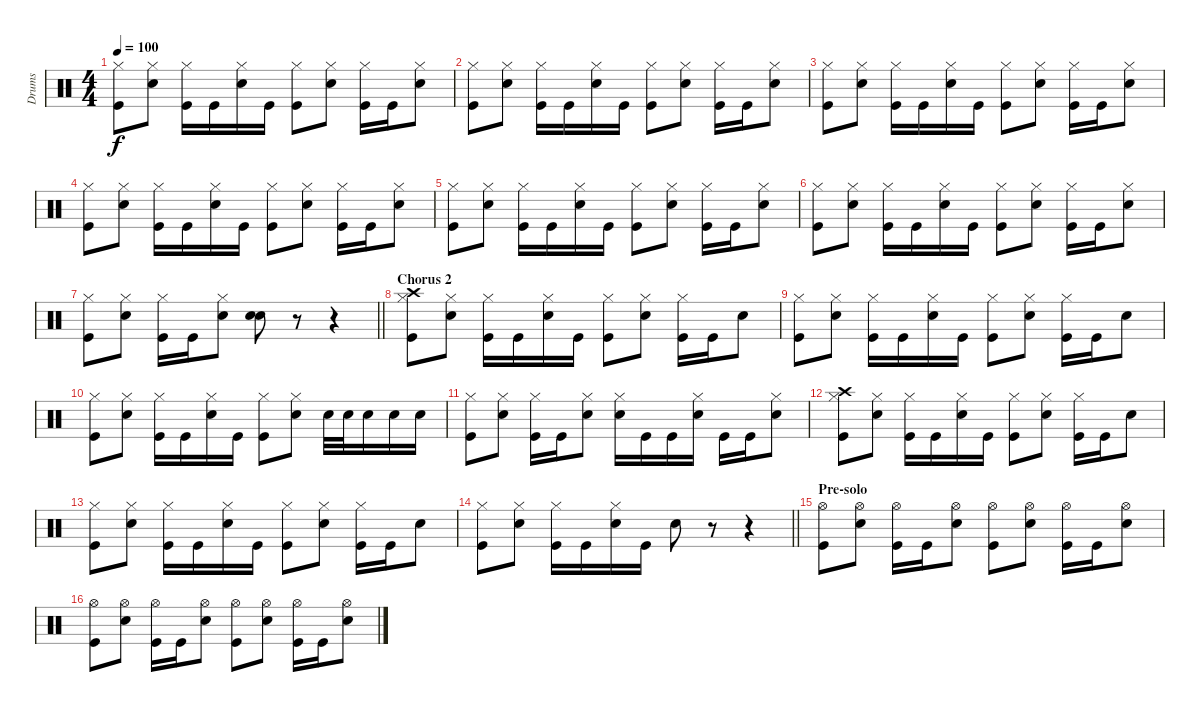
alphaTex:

\track ("Drums" "Drums") {instrument percussion}
\staff {score}
\articulation defaults
\ts (4 4)
\tempo 100
\clef neutral
\ks c
("Hi-Hat (closed)" "Kick (hit)").8{dy f} ("Hi-Hat (closed)" "Snare (hit) 2").8 ("Hi-Hat (closed)" "Kick (hit)").16 "Kick (hit)".16 ("Hi-Hat (closed)" "Snare (hit) 2").16 "Kick (hit)".16 ("Hi-Hat (closed)" "Kick (hit)").8 ("Hi-Hat (closed)" "Snare (hit) 2").8 ("Hi-Hat (closed)" "Kick (hit)").16 "Kick (hit)".16 ("Hi-Hat (closed)" "Snare (hit) 2").8 |
("Hi-Hat (closed)" "Kick (hit)").8 ("Hi-Hat (closed)" "Snare (hit) 2").8 ("Hi-Hat (closed)" "Kick (hit)").16 "Kick (hit)".16 ("Hi-Hat (closed)" "Snare (hit) 2").16 "Kick (hit)".16 ("Hi-Hat (closed)" "Kick (hit)").8 ("Hi-Hat (closed)" "Snare (hit) 2").8 ("Hi-Hat (closed)" "Kick (hit)").16 "Kick (hit)".16 ("Hi-Hat (closed)" "Snare (hit) 2").8 |
("Hi-Hat (closed)" "Kick (hit)").8 ("Hi-Hat (closed)" "Snare (hit) 2").8 ("Hi-Hat (closed)" "Kick (hit)").16 "Kick (hit)".16 ("Hi-Hat (closed)" "Snare (hit) 2").16 "Kick (hit)".16 ("Hi-Hat (closed)" "Kick (hit)").8 ("Hi-Hat (closed)" "Snare (hit) 2").8 ("Hi-Hat (closed)" "Kick (hit)").16 "Kick (hit)".16 ("Hi-Hat (closed)" "Snare (hit) 2").8 |
("Hi-Hat (closed)" "Kick (hit)").8 ("Hi-Hat (closed)" "Snare (hit) 2").8 ("Hi-Hat (closed)" "Kick (hit)").16 "Kick (hit)".16 ("Hi-Hat (closed)" "Snare (hit) 2").16 "Kick (hit)".16 ("Hi-Hat (closed)" "Kick (hit)").8 ("Hi-Hat (closed)" "Snare (hit) 2").8 ("Hi-Hat (closed)" "Kick (hit)").16 "Kick (hit)".16 ("Hi-Hat (closed)" "Snare (hit) 2").8 |
("Hi-Hat (closed)" "Kick (hit)").8 ("Hi-Hat (closed)" "Snare (hit) 2").8 ("Hi-Hat (closed)" "Kick (hit)").16 "Kick (hit)".16 ("Hi-Hat (closed)" "Snare (hit) 2").16 "Kick (hit)".16 ("Hi-Hat (closed)" "Kick (hit)").8 ("Hi-Hat (closed)" "Snare (hit) 2").8 ("Hi-Hat (closed)" "Kick (hit)").16 "Kick (hit)".16 ("Hi-Hat (closed)" "Snare (hit) 2").8 |
("Hi-Hat (closed)" "Kick (hit)").8 ("Hi-Hat (closed)" "Snare (hit) 2").8 ("Hi-Hat (closed)" "Kick (hit)").16 "Kick (hit)".16 ("Hi-Hat (closed)" "Snare (hit) 2").16 "Kick (hit)".16 ("Hi-Hat (closed)" "Kick (hit)").8 ("Hi-Hat (closed)" "Snare (hit) 2").8 ("Hi-Hat (closed)" "Kick (hit)").16 "Kick (hit)".16 ("Hi-Hat (closed)" "Snare (hit) 2").8 |
\barLineRight lightlight
("Hi-Hat (closed)" "Kick (hit)").8 ("Hi-Hat (closed)" "Snare (hit) 2").8 ("Hi-Hat (closed)" "Kick (hit)").16 "Kick (hit)".16 ("Hi-Hat (closed)" "Snare (hit) 2").8 ("Snare (hit) 2" "Snare (hit) 2").8 r.8 r.4 |
\section ("" "Chorus 2")
("Hi-Hat (closed)" "Crash high (hit)" "Kick (hit)").8 ("Hi-Hat (closed)" "Snare (hit) 2").8 ("Hi-Hat (closed)" "Kick (hit)").16 "Kick (hit)".16 ("Hi-Hat (closed)" "Snare (hit) 2").16 "Kick (hit)".16 ("Hi-Hat (closed)" "Kick (hit)").8 ("Hi-Hat (closed)" "Snare (hit) 2").8 ("Hi-Hat (closed)" "Kick (hit)").16 "Kick (hit)".16 "Snare (hit) 2".8 |
("Hi-Hat (closed)" "Kick (hit)").8 ("Hi-Hat (closed)" "Snare (hit) 2").8 ("Hi-Hat (closed)" "Kick (hit)").16 "Kick (hit)".16 ("Hi-Hat (closed)" "Snare (hit) 2").16 "Kick (hit)".16 ("Hi-Hat (closed)" "Kick (hit)").8 ("Hi-Hat (closed)" "Snare (hit) 2").8 ("Hi-Hat (closed)" "Kick (hit)").16 "Kick (hit)".16 "Snare (hit) 2".8 |
("Hi-Hat (closed)" "Kick (hit)").8 ("Hi-Hat (closed)" "Snare (hit) 2").8 ("Hi-Hat (closed)" "Kick (hit)").16 "Kick (hit)".16 ("Hi-Hat (closed)" "Snare (hit) 2").16 "Kick (hit)".16 ("Hi-Hat (closed)" "Kick (hit)").8 ("Hi-Hat (closed)" "Snare (hit) 2").8 "Snare (hit) 2".32 "Snare (hit) 2".32 "Snare (hit) 2".16 "Snare (hit) 2".16 "Snare (hit) 2".16 |
("Hi-Hat (closed)" "Kick (hit)").8 ("Hi-Hat (closed)" "Snare (hit) 2").8 ("Hi-Hat (closed)" "Kick (hit)").16 "Kick (hit)".16 ("Hi-Hat (closed)" "Snare (hit) 2").8 ("Hi-Hat (closed)" "Snare (hit) 2").16 "Kick (hit)".16 "Kick (hit)".16 ("Hi-Hat (closed)" "Snare (hit) 2").16 "Kick (hit)".16 "Kick (hit)".16 ("Hi-Hat (closed)" "Snare (hit) 2").8 |
("Hi-Hat (closed)" "Crash high (hit)" "Kick (hit)").8 ("Hi-Hat (closed)" "Snare (hit) 2").8 ("Hi-Hat (closed)" "Kick (hit)").16 "Kick (hit)".16 ("Hi-Hat (closed)" "Snare (hit) 2").16 "Kick (hit)".16 ("Hi-Hat (closed)" "Kick (hit)").8 ("Hi-Hat (closed)" "Snare (hit) 2").8 ("Hi-Hat (closed)" "Kick (hit)").16 "Kick (hit)".16 "Snare (hit) 2".8 |
("Hi-Hat (closed)" "Kick (hit)").8 ("Hi-Hat (closed)" "Snare (hit) 2").8 ("Hi-Hat (closed)" "Kick (hit)").16 "Kick (hit)".16 ("Hi-Hat (closed)" "Snare (hit) 2").16 "Kick (hit)".16 ("Hi-Hat (closed)" "Kick (hit)").8 ("Hi-Hat (closed)" "Snare (hit) 2").8 ("Hi-Hat (closed)" "Kick (hit)").16 "Kick (hit)".16 "Snare (hit) 2".8 |
\barLineRight lightlight
("Hi-Hat (closed)" "Kick (hit)").8 ("Hi-Hat (closed)" "Snare (hit) 2").8 ("Hi-Hat (closed)" "Kick (hit)").16 "Kick (hit)".16 ("Hi-Hat (closed)" "Snare (hit) 2").16 "Kick (hit)".16 "Snare (hit) 2".8 r.8 r.4 |
\section ("" "Pre-solo")
("Hi-Hat (open)" "Kick (hit)").8 ("Hi-Hat (open)" "Snare (hit) 2").8 ("Hi-Hat (open)" "Kick (hit)").16 "Kick (hit)".16 ("Hi-Hat (open)" "Snare (hit) 2").8 ("Hi-Hat (open)" "Kick (hit)").8 ("Hi-Hat (open)" "Snare (hit) 2").8 ("Hi-Hat (open)" "Kick (hit)").16 "Kick (hit)".16 ("Hi-Hat (open)" "Snare (hit) 2").8 |
("Hi-Hat (open)" "Kick (hit)").8 ("Hi-Hat (open)" "Snare (hit) 2").8 ("Hi-Hat (open)" "Kick (hit)").16 "Kick (hit)".16 ("Hi-Hat (open)" "Snare (hit) 2").8 ("Hi-Hat (open)" "Kick (hit)").8 ("Hi-Hat (open)" "Snare (hit) 2").8 ("Hi-Hat (open)" "Kick (hit)").16 "Kick (hit)".16 ("Hi-Hat (open)" "Snare (hit) 2").8
